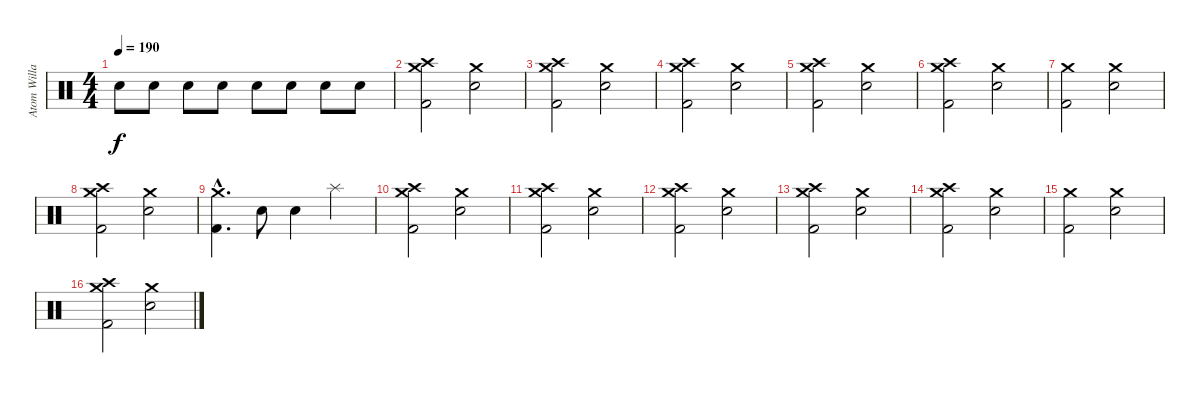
\track ("Atom Willard" "Atom Willa") {instrument percussion}
\staff {score}
\articulation defaults
\ts (4 4)
\tempo 190
\clef neutral
\ks c "Electric Snare (hit)".8{dy f} "Electric Snare (hit)".8 "Electric Snare (hit)".8 "Electric Snare (hit)".8 "Electric Snare (hit)".8 "Electric Snare (hit)".8 "Electric Snare (hit)".8 "Electric Snare (hit)".8
|
("Crash high (hit)" "Crash medium (hit)" "Kick (hit) 2").2 ("Crash medium (hit)" "Electric Snare (hit)").2 |
("Crash high (hit)" "Crash medium (hit)" "Kick (hit) 2").2 ("Crash medium (hit)" "Electric Snare (hit)").2 |
("Crash high (hit)" "Crash medium (hit)" "Kick (hit) 2").2 ("Crash medium (hit)" "Electric Snare (hit)").2 |
("Crash high (hit)" "Crash medium (hit)" "Kick (hit) 2").2 ("Crash medium (hit)" "Electric Snare (hit)").2 |
("Crash high (hit)" "Crash medium (hit)" "Kick (hit) 2").2 ("Crash medium (hit)" "Electric Snare (hit)").2 |
("Crash medium (hit)" "Kick (hit) 2").2 ("Crash medium (hit)" "Electric Snare (hit)").2 |
("Crash high (hit)" "Crash medium (hit)" "Kick (hit) 2").2 ("Crash medium (hit)" "Electric Snare (hit)").2 |
("Crash medium (hit)"{hac} "Kick (hit) 2"{hac}).4{d} "Electric Snare (hit)".8 "Electric Snare (hit)".4 "Splash (hit)".4 |
("Crash high (hit)" "Crash medium (hit)" "Kick (hit) 2").2 ("Crash medium (hit)" "Electric Snare (hit)").2 |
("Crash high (hit)" "Crash medium (hit)" "Kick (hit) 2").2 ("Crash medium (hit)" "Electric Snare (hit)").2 |
("Crash high (hit)" "Crash medium (hit)" "Kick (hit) 2").2 ("Crash medium (hit)" "Electric Snare (hit)").2 |
("Crash high (hit)" "Crash medium (hit)" "Kick (hit) 2").2 ("Crash medium (hit)" "Electric Snare (hit)").2 |
("Crash high (hit)" "Crash medium (hit)" "Kick (hit) 2").2 ("Crash medium (hit)" "Electric Snare (hit)").2 |
("Crash medium (hit)" "Kick (hit) 2").2 ("Crash medium (hit)" "Electric Snare (hit)").2 |
("Crash high (hit)" "Crash medium (hit)" "Kick (hit) 2").2 ("Crash medium (hit)" "Electric Snare (hit)").2
